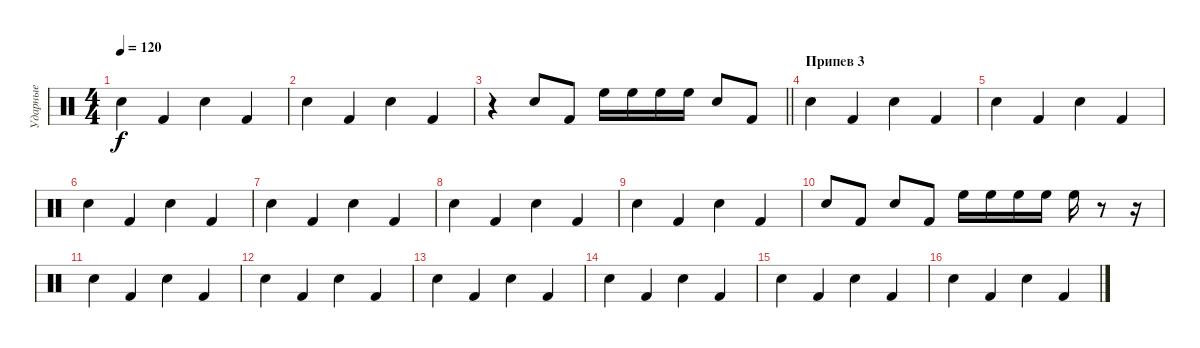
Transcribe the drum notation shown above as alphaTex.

\track ("Ударные" "Ударные") {instrument percussion}
\staff {score}
\articulation defaults
\ts (4 4)
\tempo 120
\clef neutral
\ks c "Electric Snare (hit)".4{dy f} "Kick (hit) 2".4 "Electric Snare (hit)".4 "Kick (hit) 2".4
|
"Electric Snare (hit)".4 "Kick (hit) 2".4 "Electric Snare (hit)".4 "Kick (hit) 2".4 |
\barLineRight lightlight
r.4 "Electric Snare (hit)".8 "Kick (hit) 2".8 "High Floor Tom (hit)".16 "High Floor Tom (hit)".16 "High Floor Tom (hit)".16 "High Floor Tom (hit)".16 "Electric Snare (hit)".8 "Kick (hit) 2".8 |
\section ("" "Припев 3")
"Electric Snare (hit)".4 "Kick (hit) 2".4 "Electric Snare (hit)".4 "Kick (hit) 2".4 |
"Electric Snare (hit)".4 "Kick (hit) 2".4 "Electric Snare (hit)".4 "Kick (hit) 2".4 |
"Electric Snare (hit)".4 "Kick (hit) 2".4 "Electric Snare (hit)".4 "Kick (hit) 2".4 |
"Electric Snare (hit)".4 "Kick (hit) 2".4 "Electric Snare (hit)".4 "Kick (hit) 2".4 |
"Electric Snare (hit)".4 "Kick (hit) 2".4 "Electric Snare (hit)".4 "Kick (hit) 2".4 |
"Electric Snare (hit)".4 "Kick (hit) 2".4 "Electric Snare (hit)".4 "Kick (hit) 2".4 |
"Electric Snare (hit)".8 "Kick (hit) 2".8 "Electric Snare (hit)".8 "Kick (hit) 2".8 "High Floor Tom (hit)".16 "High Floor Tom (hit)".16 "High Floor Tom (hit)".16 "High Floor Tom (hit)".16 "High Floor Tom (hit)".16 r.8 r.16 |
"Electric Snare (hit)".4 "Kick (hit) 2".4 "Electric Snare (hit)".4 "Kick (hit) 2".4 |
"Electric Snare (hit)".4 "Kick (hit) 2".4 "Electric Snare (hit)".4 "Kick (hit) 2".4 |
"Electric Snare (hit)".4 "Kick (hit) 2".4 "Electric Snare (hit)".4 "Kick (hit) 2".4 |
"Electric Snare (hit)".4 "Kick (hit) 2".4 "Electric Snare (hit)".4 "Kick (hit) 2".4 |
"Electric Snare (hit)".4 "Kick (hit) 2".4 "Electric Snare (hit)".4 "Kick (hit) 2".4 |
"Electric Snare (hit)".4 "Kick (hit) 2".4 "Electric Snare (hit)".4 "Kick (hit) 2".4
